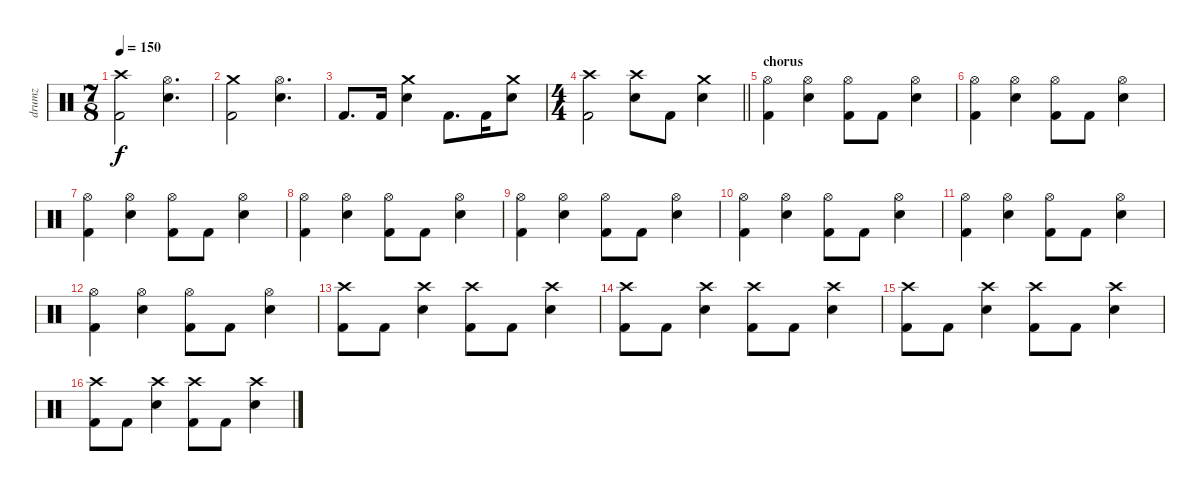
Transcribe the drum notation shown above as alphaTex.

\track ("drumz" "drumz") {instrument percussion}
\staff {score}
\articulation defaults
\ts (7 8)
\tempo 150
\clef neutral
\ks c
("Crash high (hit)" "Kick (hit) 2").2{dy f} ("Hi-Hat (open)" "Electric Snare (hit)").4{d} |
("Crash medium (hit)" "Kick (hit) 2").2 ("Hi-Hat (open)" "Electric Snare (hit)").4{d} |
"Kick (hit) 2".8{d} "Kick (hit) 2".16 ("Crash medium (hit)" "Electric Snare (hit)").4 "Kick (hit) 2".8{d} "Kick (hit) 2".16 ("Crash medium (hit)" "Electric Snare (hit)").8 |
\ts (4 4)
\barLineRight lightlight
("Crash high (hit)" "Kick (hit) 2").2 ("Crash high (hit)" "Electric Snare (hit)").8 "Kick (hit) 2".8 ("Crash medium (hit)" "Electric Snare (hit)").4 |
\section ("" "chorus")
("Hi-Hat (open)" "Kick (hit) 2").4 ("Hi-Hat (open)" "Electric Snare (hit)").4 ("Hi-Hat (open)" "Kick (hit) 2").8 "Kick (hit) 2".8 ("Hi-Hat (open)" "Electric Snare (hit)").4 |
("Hi-Hat (open)" "Kick (hit) 2").4 ("Hi-Hat (open)" "Electric Snare (hit)").4 ("Hi-Hat (open)" "Kick (hit) 2").8 "Kick (hit) 2".8 ("Hi-Hat (open)" "Electric Snare (hit)").4 |
("Hi-Hat (open)" "Kick (hit) 2").4 ("Hi-Hat (open)" "Electric Snare (hit)").4 ("Hi-Hat (open)" "Kick (hit) 2").8 "Kick (hit) 2".8 ("Hi-Hat (open)" "Electric Snare (hit)").4 |
("Hi-Hat (open)" "Kick (hit) 2").4 ("Hi-Hat (open)" "Electric Snare (hit)").4 ("Hi-Hat (open)" "Kick (hit) 2").8 "Kick (hit) 2".8 ("Hi-Hat (open)" "Electric Snare (hit)").4 |
("Hi-Hat (open)" "Kick (hit) 2").4 ("Hi-Hat (open)" "Electric Snare (hit)").4 ("Hi-Hat (open)" "Kick (hit) 2").8 "Kick (hit) 2".8 ("Hi-Hat (open)" "Electric Snare (hit)").4 |
("Hi-Hat (open)" "Kick (hit) 2").4 ("Hi-Hat (open)" "Electric Snare (hit)").4 ("Hi-Hat (open)" "Kick (hit) 2").8 "Kick (hit) 2".8 ("Hi-Hat (open)" "Electric Snare (hit)").4 |
("Hi-Hat (open)" "Kick (hit) 2").4 ("Hi-Hat (open)" "Electric Snare (hit)").4 ("Hi-Hat (open)" "Kick (hit) 2").8 "Kick (hit) 2".8 ("Hi-Hat (open)" "Electric Snare (hit)").4 |
("Hi-Hat (open)" "Kick (hit) 2").4 ("Hi-Hat (open)" "Electric Snare (hit)").4 ("Hi-Hat (open)" "Kick (hit) 2").8 "Kick (hit) 2".8 ("Hi-Hat (open)" "Electric Snare (hit)").4 |
("Crash high (hit)" "Kick (hit) 2").8 "Kick (hit) 2".8 ("Crash high (hit)" "Electric Snare (hit)").4 ("Crash high (hit)" "Kick (hit) 2").8 "Kick (hit) 2".8 ("Crash high (hit)" "Electric Snare (hit)").4 |
("Crash high (hit)" "Kick (hit) 2").8 "Kick (hit) 2".8 ("Crash high (hit)" "Electric Snare (hit)").4 ("Crash high (hit)" "Kick (hit) 2").8 "Kick (hit) 2".8 ("Crash high (hit)" "Electric Snare (hit)").4 |
("Crash high (hit)" "Kick (hit) 2").8 "Kick (hit) 2".8 ("Crash high (hit)" "Electric Snare (hit)").4 ("Crash high (hit)" "Kick (hit) 2").8 "Kick (hit) 2".8 ("Crash high (hit)" "Electric Snare (hit)").4 |
("Crash high (hit)" "Kick (hit) 2").8 "Kick (hit) 2".8 ("Crash high (hit)" "Electric Snare (hit)").4 ("Crash high (hit)" "Kick (hit) 2").8 "Kick (hit) 2".8 ("Crash high (hit)" "Electric Snare (hit)").4
